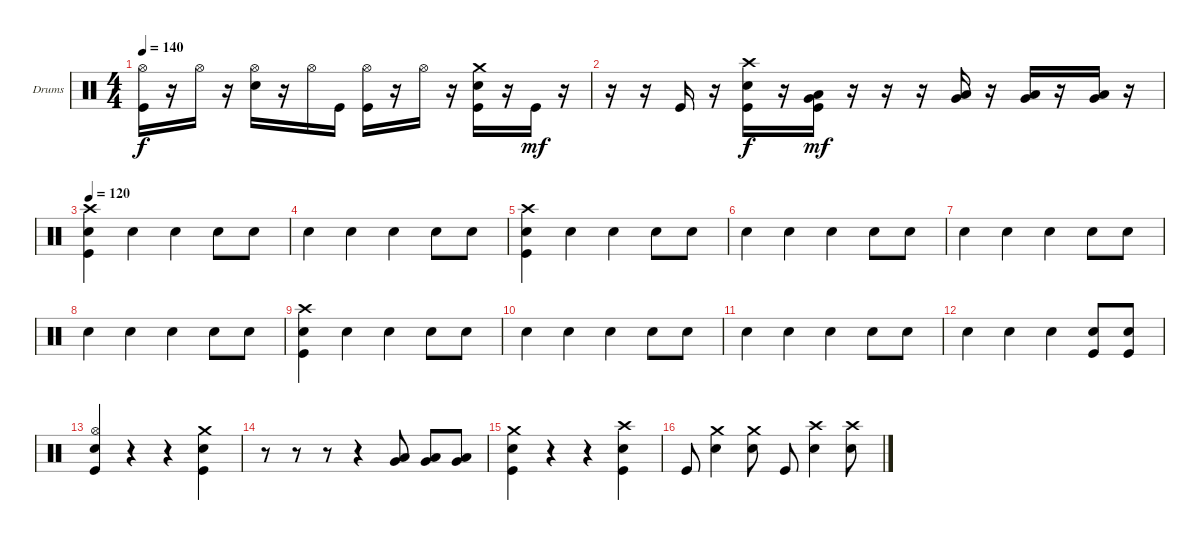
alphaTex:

\bracketExtendMode groupsimilarinstruments
\firstSystemTrackNameOrientation horizontal
\otherSystemsTrackNameOrientation horizontal
\track ("Drums" "Drums") {instrument percussion}
\staff {score}
\articulation defaults
\ts (4 4)
\tempo 140
\clef neutral
\ks c
("Kick (hit)" "Hi-Hat (open)").16{dy f} r.16 "Hi-Hat (open)".16 r.16 ("Hi-Hat (open)" "Snare (hit) 2").16 r.16 "Hi-Hat (open)".16 "Kick (hit)".16 ("Hi-Hat (open)" "Kick (hit)").16 r.16 "Hi-Hat (open)".16 r.16 ("Snare (hit) 2" "Kick (hit)" "Crash medium (hit)").16 r.16 "Kick (hit)".16{dy mf} r.16 |
r.16 r.16 "Kick (hit)".16 r.16 ("Kick (hit)" "Snare (hit) 2" "Crash high (hit)").16{dy f} r.16 ("Very Low Tom (hit)" "Low Tom (hit)" "Kick (hit)").16{dy mf} r.16 r.16 r.16 ("Very Low Tom (hit)" "Low Tom (hit)").16 r.16 ("Very Low Tom (hit)" "Low Tom (hit)").16 r.16 ("Very Low Tom (hit)" "Low Tom (hit)").16 r.16 |
\tempo 120
("Snare (hit) 2" "Kick (hit)" "Crash high (hit)").4 "Snare (hit) 2".4 "Snare (hit) 2".4 "Snare (hit) 2".8 "Snare (hit) 2".8 |
"Snare (hit) 2".4 "Snare (hit) 2".4 "Snare (hit) 2".4 "Snare (hit) 2".8 "Snare (hit) 2".8 |
("Snare (hit) 2" "Kick (hit)" "Crash high (hit)").4 "Snare (hit) 2".4 "Snare (hit) 2".4 "Snare (hit) 2".8 "Snare (hit) 2".8 |
"Snare (hit) 2".4 "Snare (hit) 2".4 "Snare (hit) 2".4 "Snare (hit) 2".8 "Snare (hit) 2".8 |
"Snare (hit) 2".4 "Snare (hit) 2".4 "Snare (hit) 2".4 "Snare (hit) 2".8 "Snare (hit) 2".8 |
"Snare (hit) 2".4 "Snare (hit) 2".4 "Snare (hit) 2".4 "Snare (hit) 2".8 "Snare (hit) 2".8 |
("Snare (hit) 2" "Kick (hit)" "Crash high (hit)").4 "Snare (hit) 2".4 "Snare (hit) 2".4 "Snare (hit) 2".8 "Snare (hit) 2".8 |
"Snare (hit) 2".4 "Snare (hit) 2".4 "Snare (hit) 2".4 "Snare (hit) 2".8 "Snare (hit) 2".8 |
"Snare (hit) 2".4 "Snare (hit) 2".4 "Snare (hit) 2".4 "Snare (hit) 2".8 "Snare (hit) 2".8 |
"Snare (hit) 2".4 "Snare (hit) 2".4 "Snare (hit) 2".4 ("Snare (hit) 2" "Kick (hit)").8 ("Snare (hit) 2" "Kick (hit)").8 |
("Kick (hit)" "Snare (hit) 2" "Hi-Hat (open)").4 r.4 r.4 ("Kick (hit)" "Snare (hit) 2" "Crash medium (hit)").4 |
r.8 r.8 r.8 r.4 ("Very Low Tom (hit)" "Low Tom (hit)").8 ("Very Low Tom (hit)" "Low Tom (hit)").8 ("Very Low Tom (hit)" "Low Tom (hit)").8 |
("Kick (hit)" "Snare (hit) 2" "Crash medium (hit)").4 r.4 r.4 ("Kick (hit)" "Snare (hit) 2" "Crash high (hit)").4 |
"Kick (hit)".8 ("Snare (hit) 2" "Crash medium (hit)").4 ("Snare (hit) 2" "Crash medium (hit)").8 "Kick (hit)".8 ("Snare (hit) 2" "Crash high (hit)").4 ("Snare (hit) 2" "Crash high (hit)").8
